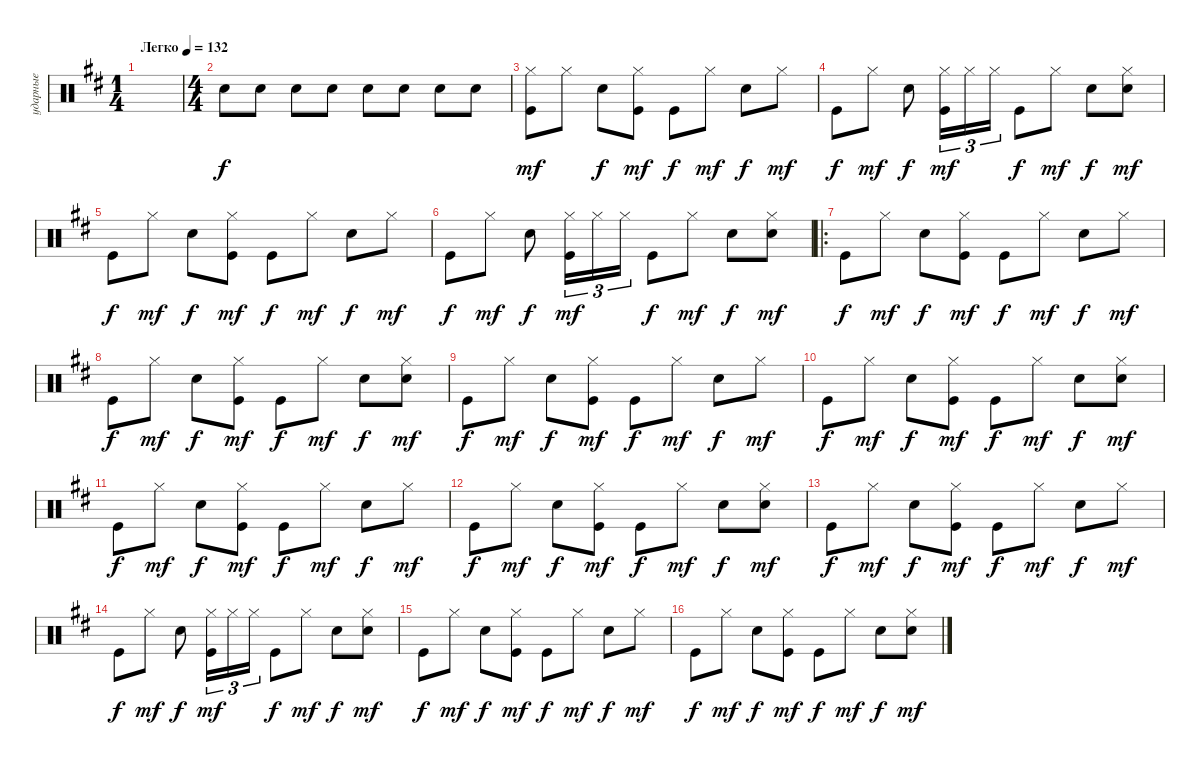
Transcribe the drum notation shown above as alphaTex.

\track ("ударные" "ударные") {instrument percussion}
\staff {score}
\articulation defaults
\ts (1 4)
\tempo (132 "Легко")
\clef neutral
\ks d
|
\ts (4 4)
"Snare (hit) 2".8 "Snare (hit) 2".8 "Snare (hit) 2".8 "Snare (hit) 2".8 "Snare (hit) 2".8 "Snare (hit) 2".8 "Snare (hit) 2".8 "Snare (hit) 2".8 |
("Kick (hit)" "Hi-Hat (closed)").8{dy mf} "Hi-Hat (closed)".8 "Snare (hit) 2".8{dy f} ("Kick (hit)" "Hi-Hat (closed)").8{dy mf} "Kick (hit)".8{dy f} "Hi-Hat (closed)".8{dy mf} "Snare (hit) 2".8{dy f} "Hi-Hat (closed)".8{dy mf} |
"Kick (hit)".8{dy f} "Hi-Hat (closed)".8{dy mf} "Snare (hit) 2".8{dy f} ("Kick (hit)" "Hi-Hat (closed)").16{tu (3 2) dy mf} "Hi-Hat (closed)".16{tu (3 2)} "Hi-Hat (closed)".16{tu (3 2)} "Kick (hit)".8{dy f} "Hi-Hat (closed)".8{dy mf} "Snare (hit) 2".8{dy f} ("Hi-Hat (closed)" "Snare (hit) 2").8{dy mf} |
"Kick (hit)".8{dy f} "Hi-Hat (closed)".8{dy mf} "Snare (hit) 2".8{dy f} ("Kick (hit)" "Hi-Hat (closed)").8{dy mf} "Kick (hit)".8{dy f} "Hi-Hat (closed)".8{dy mf} "Snare (hit) 2".8{dy f} "Hi-Hat (closed)".8{dy mf} |
"Kick (hit)".8{dy f} "Hi-Hat (closed)".8{dy mf} "Snare (hit) 2".8{dy f} ("Kick (hit)" "Hi-Hat (closed)").16{tu (3 2) dy mf} "Hi-Hat (closed)".16{tu (3 2)} "Hi-Hat (closed)".16{tu (3 2)} "Kick (hit)".8{dy f} "Hi-Hat (closed)".8{dy mf} "Snare (hit) 2".8{dy f} ("Hi-Hat (closed)" "Snare (hit) 2").8{dy mf} |
\ro "Kick (hit)".8{dy f} "Hi-Hat (closed)".8{dy mf} "Snare (hit) 2".8{dy f}
("Kick (hit)" "Hi-Hat (closed)").8{dy mf} "Kick (hit)".8{dy f} "Hi-Hat (closed)".8{dy mf} "Snare (hit) 2".8{dy f} "Hi-Hat (closed)".8{dy mf} |
"Kick (hit)".8{dy f} "Hi-Hat (closed)".8{dy mf} "Snare (hit) 2".8{dy f} ("Kick (hit)" "Hi-Hat (closed)").8{dy mf} "Kick (hit)".8{dy f} "Hi-Hat (closed)".8{dy mf} "Snare (hit) 2".8{dy f} ("Hi-Hat (closed)" "Snare (hit) 2").8{dy mf} |
"Kick (hit)".8{dy f} "Hi-Hat (closed)".8{dy mf} "Snare (hit) 2".8{dy f} ("Kick (hit)" "Hi-Hat (closed)").8{dy mf} "Kick (hit)".8{dy f} "Hi-Hat (closed)".8{dy mf} "Snare (hit) 2".8{dy f} "Hi-Hat (closed)".8{dy mf} |
"Kick (hit)".8{dy f} "Hi-Hat (closed)".8{dy mf} "Snare (hit) 2".8{dy f} ("Kick (hit)" "Hi-Hat (closed)").8{dy mf} "Kick (hit)".8{dy f} "Hi-Hat (closed)".8{dy mf} "Snare (hit) 2".8{dy f} ("Hi-Hat (closed)" "Snare (hit) 2").8{dy mf} |
"Kick (hit)".8{dy f} "Hi-Hat (closed)".8{dy mf} "Snare (hit) 2".8{dy f} ("Kick (hit)" "Hi-Hat (closed)").8{dy mf} "Kick (hit)".8{dy f} "Hi-Hat (closed)".8{dy mf} "Snare (hit) 2".8{dy f} "Hi-Hat (closed)".8{dy mf} |
"Kick (hit)".8{dy f} "Hi-Hat (closed)".8{dy mf} "Snare (hit) 2".8{dy f} ("Kick (hit)" "Hi-Hat (closed)").8{dy mf} "Kick (hit)".8{dy f} "Hi-Hat (closed)".8{dy mf} "Snare (hit) 2".8{dy f} ("Hi-Hat (closed)" "Snare (hit) 2").8{dy mf} |
"Kick (hit)".8{dy f} "Hi-Hat (closed)".8{dy mf} "Snare (hit) 2".8{dy f} ("Kick (hit)" "Hi-Hat (closed)").8{dy mf} "Kick (hit)".8{dy f} "Hi-Hat (closed)".8{dy mf} "Snare (hit) 2".8{dy f} "Hi-Hat (closed)".8{dy mf} |
"Kick (hit)".8{dy f} "Hi-Hat (closed)".8{dy mf} "Snare (hit) 2".8{dy f} ("Kick (hit)" "Hi-Hat (closed)").16{tu (3 2) dy mf} "Hi-Hat (closed)".16{tu (3 2)} "Hi-Hat (closed)".16{tu (3 2)} "Kick (hit)".8{dy f} "Hi-Hat (closed)".8{dy mf} "Snare (hit) 2".8{dy f} ("Hi-Hat (closed)" "Snare (hit) 2").8{dy mf} |
"Kick (hit)".8{dy f} "Hi-Hat (closed)".8{dy mf} "Snare (hit) 2".8{dy f} ("Kick (hit)" "Hi-Hat (closed)").8{dy mf} "Kick (hit)".8{dy f} "Hi-Hat (closed)".8{dy mf} "Snare (hit) 2".8{dy f} "Hi-Hat (closed)".8{dy mf} |
"Kick (hit)".8{dy f} "Hi-Hat (closed)".8{dy mf} "Snare (hit) 2".8{dy f} ("Kick (hit)" "Hi-Hat (closed)").8{dy mf} "Kick (hit)".8{dy f} "Hi-Hat (closed)".8{dy mf} "Snare (hit) 2".8{dy f} ("Hi-Hat (closed)" "Snare (hit) 2").8{dy mf}
